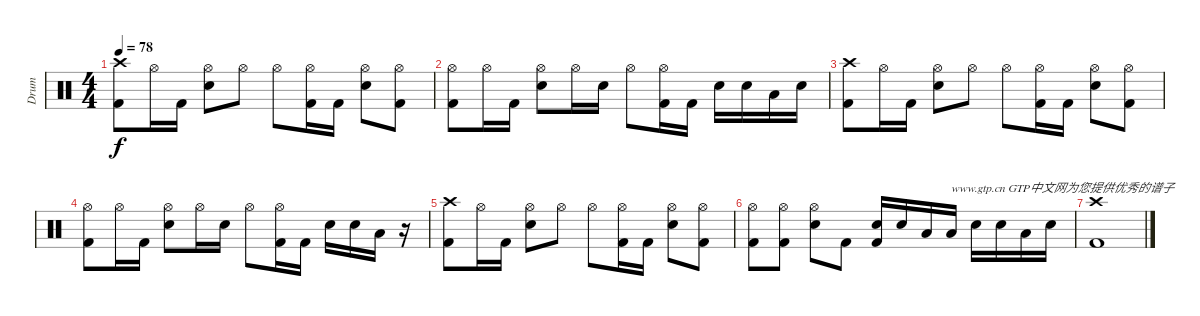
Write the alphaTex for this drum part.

\track ("Drum" "Drum") {instrument percussion}
\staff {score}
\articulation defaults
\ts (4 4)
\tempo 78
\clef neutral
\ks c
("Crash high (hit)" "Kick (hit) 2").8{dy f} "Hi-Hat (open)".16 "Kick (hit) 2".16 ("Hi-Hat (open)" "Snare (hit) 2").8 "Hi-Hat (open)".8 "Hi-Hat (open)".8 ("Hi-Hat (open)" "Kick (hit) 2").16 "Kick (hit) 2".16 ("Hi-Hat (open)" "Snare (hit) 2").8 ("Hi-Hat (open)" "Kick (hit) 2").8 |
("Hi-Hat (open)" "Kick (hit) 2").8 "Hi-Hat (open)".16 "Kick (hit) 2".16 ("Hi-Hat (open)" "Snare (hit) 2").8 "Hi-Hat (open)".16 "Snare (hit) 2".16 "Hi-Hat (open)".8 ("Hi-Hat (open)" "Kick (hit) 2").16 "Kick (hit) 2".16 "Snare (hit) 2".16 "Snare (hit) 2".16 "Low Tom (hit)".16 "Snare (hit) 2".16 |
("Crash high (hit)" "Kick (hit) 2").8 "Hi-Hat (open)".16 "Kick (hit) 2".16 ("Hi-Hat (open)" "Snare (hit) 2").8 "Hi-Hat (open)".8 "Hi-Hat (open)".8 ("Hi-Hat (open)" "Kick (hit) 2").16 "Kick (hit) 2".16 ("Hi-Hat (open)" "Snare (hit) 2").8 ("Hi-Hat (open)" "Kick (hit) 2").8 |
("Hi-Hat (open)" "Kick (hit) 2").8 "Hi-Hat (open)".16 "Kick (hit) 2".16 ("Hi-Hat (open)" "Snare (hit) 2").8 "Hi-Hat (open)".16 "Snare (hit) 2".16 "Hi-Hat (open)".8 ("Hi-Hat (open)" "Kick (hit) 2").16 "Kick (hit) 2".16 "Snare (hit) 2".16 "Snare (hit) 2".16 "Low Tom (hit)".16 r.16 |
("Crash high (hit)" "Kick (hit) 2").8 "Hi-Hat (open)".16 "Kick (hit) 2".16 ("Hi-Hat (open)" "Snare (hit) 2").8 "Hi-Hat (open)".8 "Hi-Hat (open)".8 ("Hi-Hat (open)" "Kick (hit) 2").16 "Kick (hit) 2".16 ("Hi-Hat (open)" "Snare (hit) 2").8 ("Hi-Hat (open)" "Kick (hit) 2").8 |
("Hi-Hat (open)" "Kick (hit) 2").8 ("Hi-Hat (open)" "Kick (hit) 2").8 ("Hi-Hat (open)" "Snare (hit) 2").8 "Kick (hit) 2".8 ("Snare (hit) 2" "Kick (hit) 2").16 "Snare (hit) 2".16 "Low Tom (hit)".16 "Low Tom (hit)".16{txt "www.gtp.cn GTP中文网为您提供优秀的谱子"} "Snare (hit) 2".16 "Snare (hit) 2".16 "Low Tom (hit)".16 "Snare (hit) 2".16 |
("Crash high (hit)" "Kick (hit) 2").1
